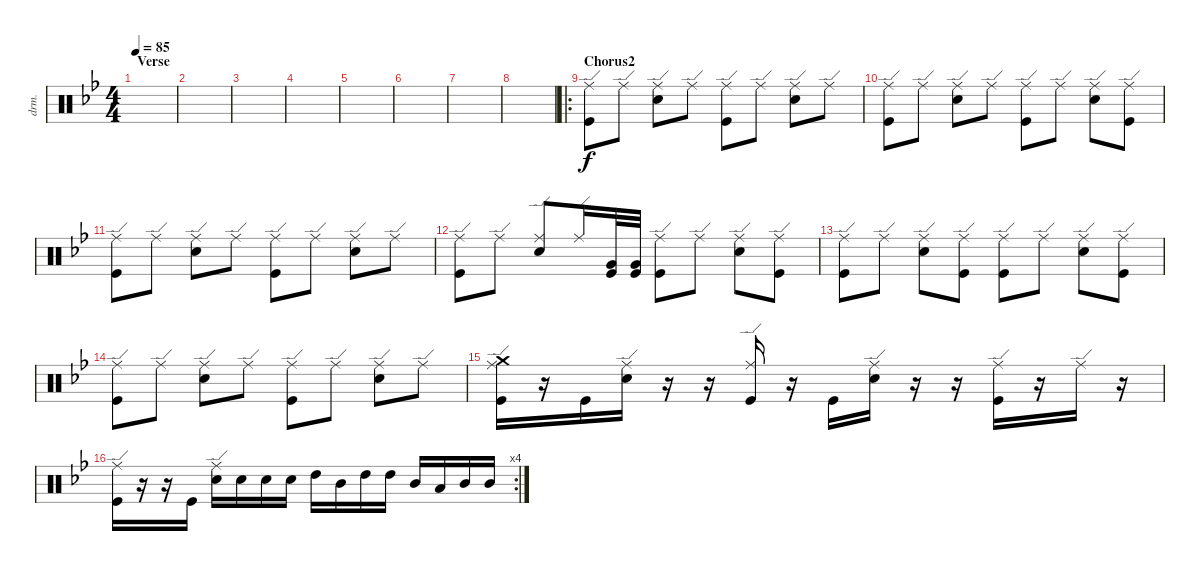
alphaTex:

\defaultSystemsLayout 4
\bracketExtendMode groupsimilarinstruments
\otherSystemsTrackNameOrientation horizontal
\track ("Drumkit" "drm.") {solo instrument percussion}
\staff {score}
\articulation defaults
\ts (4 4)
\section ("" "Verse")
\scale
1.06963
\tempo 85
\accidentals auto
\clef neutral
\ottava regular
\simile none
\ks bb
|
\scale
0.97679 |
\scale
0.97679 |
\scale
0.97679 |
\scale
1.06495 |
\scale
0.972111 |
\scale
0.972111 |
\scale
0.990827 |
\ro
\section ("" "Chorus2")
\scale
1.0978 ("Kick (hit)"{acc forcenatural} "Ride (edge)"{acc forcenatural}).8{beam Down} "Ride (edge)"{acc forcenatural}.8{beam Down} ("Snare (hit) 2"{acc forcenatural} "Ride (edge)"{acc forcenatural}).8{beam Down} "Ride (edge)"{acc forcenatural}.8{beam Down} ("Kick (hit)"{acc forcenatural} "Ride (edge)"{acc forcenatural}).8{beam Down} "Ride (edge)"{acc forcenatural}.8{beam Down} ("Snare (hit) 2"{acc forcenatural} "Ride (edge)"{acc forcenatural}).8{beam Down} "Ride (edge)"{acc forcenatural}.8{beam Down} |
\scale
0.967398 ("Kick (hit)"{acc forcenatural} "Ride (edge)"{acc forcenatural}).8{beam Down} "Ride (edge)"{acc forcenatural}.8{beam Down} ("Snare (hit) 2"{acc forcenatural} "Ride (edge)"{acc forcenatural}).8{beam Down} "Ride (edge)"{acc forcenatural}.8{beam Down} ("Kick (hit)"{acc forcenatural} "Ride (edge)"{acc forcenatural}).8{beam Down} "Ride (edge)"{acc forcenatural}.8{beam Down} ("Snare (hit) 2"{acc forcenatural} "Ride (edge)"{acc forcenatural}).8{beam Down} ("Ride (edge)"{acc forcenatural} "Kick (hit)"{acc forcenatural}).8{beam Down} |
\scale
0.967398 ("Kick (hit)"{acc forcenatural} "Ride (edge)"{acc forcenatural}).8{beam Down} "Ride (edge)"{acc forcenatural}.8{beam Down} ("Snare (hit) 2"{acc forcenatural} "Ride (edge)"{acc forcenatural}).8{beam Down} "Ride (edge)"{acc forcenatural}.8{beam Down} ("Kick (hit)"{acc forcenatural} "Ride (edge)"{acc forcenatural}).8{beam Down} "Ride (edge)"{acc forcenatural}.8{beam Down} ("Snare (hit) 2"{acc forcenatural} "Ride (edge)"{acc forcenatural}).8{beam Down} "Ride (edge)"{acc forcenatural}.8{beam Down} |
\scale
0.967398 ("Kick (hit)"{acc forcenatural} "Ride (edge)"{acc forcenatural}).8{beam Down} "Ride (edge)"{acc forcenatural}.8{beam Down} ("Snare (hit) 2"{acc forcenatural} "Ride (edge)"{acc forcenatural}).8{beam Up} "Ride (edge)"{acc forcenatural}.16{beam Up} ("Kick (hit)"{acc forcenatural} "Very Low Tom (hit)"{acc forcenatural}).32{beam Up} ("Kick (hit)"{acc forcenatural} "Very Low Tom (hit)"{acc forcenatural}).32{beam Up} ("Kick (hit)"{acc forcenatural} "Ride (edge)"{acc forcenatural}).8{beam Down} "Ride (edge)"{acc forcenatural}.8{beam Down} ("Snare (hit) 2"{acc forcenatural} "Ride (edge)"{acc forcenatural}).8{beam Down} ("Ride (edge)"{acc forcenatural} "Kick (hit)"{acc forcenatural}).8{beam Down} |
\scale
1.0574 ("Kick (hit)"{acc forcenatural} "Ride (edge)"{acc forcenatural}).8{beam Down} "Ride (edge)"{acc forcenatural}.8{beam Down} ("Snare (hit) 2"{acc forcenatural} "Ride (edge)"{acc forcenatural}).8{beam Down} ("Ride (edge)"{acc forcenatural} "Kick (hit)"{acc forcenatural}).8{beam Down} ("Kick (hit)"{acc forcenatural} "Ride (edge)"{acc forcenatural}).8{beam Down} "Ride (edge)"{acc forcenatural}.8{beam Down} ("Snare (hit) 2"{acc forcenatural} "Ride (edge)"{acc forcenatural}).8{beam Down} ("Ride (edge)"{acc forcenatural} "Kick (hit)"{acc forcenatural}).8{beam Down} |
\scale
0.964558 ("Kick (hit)"{acc forcenatural} "Ride (edge)"{acc forcenatural}).8{beam Down} "Ride (edge)"{acc forcenatural}.8{beam Down} ("Snare (hit) 2"{acc forcenatural} "Ride (edge)"{acc forcenatural}).8{beam Down} "Ride (edge)"{acc forcenatural}.8{beam Down} ("Kick (hit)"{acc forcenatural} "Ride (edge)"{acc forcenatural}).8{beam Down} "Ride (edge)"{acc forcenatural}.8{beam Down} ("Snare (hit) 2"{acc forcenatural} "Ride (edge)"{acc forcenatural}).8{beam Down} "Ride (edge)"{acc forcenatural}.8{beam Down} |
\scale
0.964558 ("Kick (hit)"{acc forcenatural} "Ride (edge)"{acc forcenatural} "Crash medium (hit)"{acc forcenatural}).16{beam Down} r.16{beam Down} "Kick (hit)"{acc forcenatural}.16{beam Down} ("Snare (hit) 2"{acc forcenatural} "Ride (edge)"{acc forcenatural}).16{beam Down} r.16{beam Up} r.16{beam Up} ("Kick (hit)"{acc forcenatural} "Ride (edge)"{acc forcenatural}).16{beam Up} r.16{beam Up} "Kick (hit)"{acc forcenatural}.16{beam Down} ("Snare (hit) 2"{acc forcenatural} "Ride (edge)"{acc forcenatural}).16{beam Down} r.16{beam Up} r.16{beam Up} ("Kick (hit)"{acc forcenatural} "Ride (edge)"{acc forcenatural}).16{beam Down} r.16{beam Down} "Ride (edge)"{acc forcenatural}.16{beam Down} r.16{beam Up} |
\rc 4
\scale
1.01349 ("Kick (hit)"{acc forcenatural} "Ride (edge)"{acc forcenatural}).16{beam Down} r.16{beam Down} r.16{beam Down} "Kick (hit)"{acc forcenatural}.16{beam Down} ("Snare (hit) 2"{acc forcenatural} "Ride (edge)"{acc forcenatural}).16{beam Down} "Snare (hit) 2"{acc forcenatural}.16{beam Down} "Snare (hit) 2"{acc forcenatural}.16{beam Down} "Snare (hit) 2"{acc forcenatural}.16{beam Down} "High Tom (hit)"{acc forcenatural}.16{beam Down} "Mid Tom (hit)"{acc forcenatural}.16{beam Down} "High Tom (hit)"{acc forcenatural}.16{beam Down} "High Tom (hit)"{acc forcenatural}.16{beam Down} "Mid Tom (hit)"{acc forcenatural}.16{beam Up} "Low Tom (hit)"{acc forcenatural}.16{beam Up} "Mid Tom (hit)"{acc forcenatural}.16{beam Up} "Mid Tom (hit)"{acc forcenatural}.16{beam Up}
